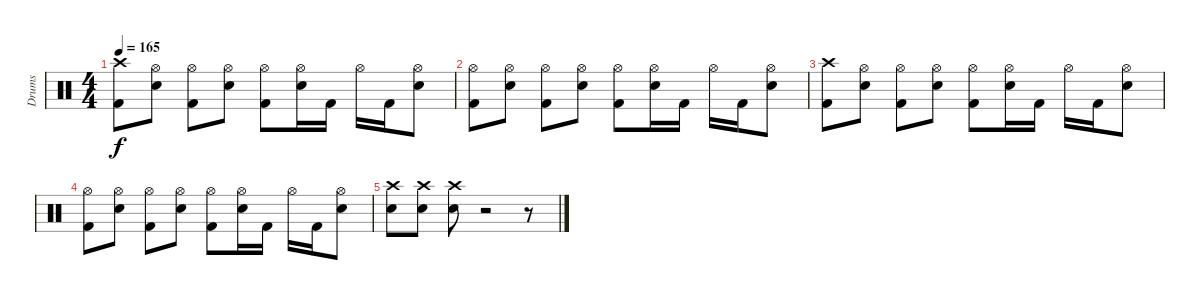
\track ("Drums" "Drums") {instrument percussion}
\staff {score}
\articulation defaults
\ts (4 4)
\tempo 165
\clef neutral
\ks c
("Crash high (hit)" "Kick (hit) 2").8{dy f} ("Hi-Hat (open)" "Electric Snare (hit)").8 ("Hi-Hat (open)" "Kick (hit) 2").8 ("Hi-Hat (open)" "Electric Snare (hit)").8 ("Hi-Hat (open)" "Kick (hit) 2").8 ("Hi-Hat (open)" "Electric Snare (hit)").16 "Kick (hit) 2".16 "Hi-Hat (open)".16 "Kick (hit) 2".16 ("Hi-Hat (open)" "Electric Snare (hit)").8 |
("Hi-Hat (open)" "Kick (hit) 2").8 ("Hi-Hat (open)" "Electric Snare (hit)").8 ("Hi-Hat (open)" "Kick (hit) 2").8 ("Hi-Hat (open)" "Electric Snare (hit)").8 ("Hi-Hat (open)" "Kick (hit) 2").8 ("Hi-Hat (open)" "Electric Snare (hit)").16 "Kick (hit) 2".16 "Hi-Hat (open)".16 "Kick (hit) 2".16 ("Hi-Hat (open)" "Electric Snare (hit)").8 |
("Crash high (hit)" "Kick (hit) 2").8 ("Hi-Hat (open)" "Electric Snare (hit)").8 ("Hi-Hat (open)" "Kick (hit) 2").8 ("Hi-Hat (open)" "Electric Snare (hit)").8 ("Hi-Hat (open)" "Kick (hit) 2").8 ("Hi-Hat (open)" "Electric Snare (hit)").16 "Kick (hit) 2".16 "Hi-Hat (open)".16 "Kick (hit) 2".16 ("Hi-Hat (open)" "Electric Snare (hit)").8 |
("Hi-Hat (open)" "Kick (hit) 2").8 ("Hi-Hat (open)" "Electric Snare (hit)").8 ("Hi-Hat (open)" "Kick (hit) 2").8 ("Hi-Hat (open)" "Electric Snare (hit)").8 ("Hi-Hat (open)" "Kick (hit) 2").8 ("Hi-Hat (open)" "Electric Snare (hit)").16 "Kick (hit) 2".16 "Hi-Hat (open)".16 "Kick (hit) 2".16 ("Hi-Hat (open)" "Electric Snare (hit)").8 |
("Crash high (hit)" "Electric Snare (hit)").8 ("Crash high (hit)" "Electric Snare (hit)").8 ("Crash high (hit)" "Electric Snare (hit)").8 r.2 r.8
